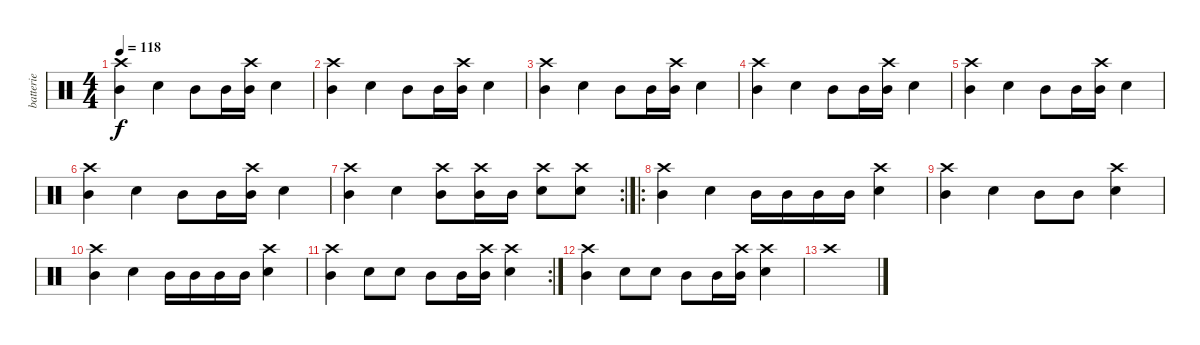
\track ("batterie" "batterie") {instrument percussion}
\staff {score}
\articulation defaults
\ts (4 4)
\tempo 118
\clef neutral
\ks c
("Mid Tom (hit)" "Crash high (hit)").4{dy f} "Electric Snare (hit)".4 "Mid Tom (hit)".8 "Mid Tom (hit)".16 ("Mid Tom (hit)" "Crash high (hit)").16 "Electric Snare (hit)".4 |
("Mid Tom (hit)" "Crash high (hit)").4 "Electric Snare (hit)".4 "Mid Tom (hit)".8 "Mid Tom (hit)".16 ("Mid Tom (hit)" "Crash high (hit)").16 "Electric Snare (hit)".4 |
("Mid Tom (hit)" "Crash high (hit)").4 "Electric Snare (hit)".4 "Mid Tom (hit)".8 "Mid Tom (hit)".16 ("Mid Tom (hit)" "Crash high (hit)").16 "Electric Snare (hit)".4 |
("Mid Tom (hit)" "Crash high (hit)").4 "Electric Snare (hit)".4 "Mid Tom (hit)".8 "Mid Tom (hit)".16 ("Mid Tom (hit)" "Crash high (hit)").16 "Electric Snare (hit)".4 |
("Mid Tom (hit)" "Crash high (hit)").4 "Electric Snare (hit)".4 "Mid Tom (hit)".8 "Mid Tom (hit)".16 ("Mid Tom (hit)" "Crash high (hit)").16 "Electric Snare (hit)".4 |
("Mid Tom (hit)" "Crash high (hit)").4 "Electric Snare (hit)".4 "Mid Tom (hit)".8 "Mid Tom (hit)".16 ("Mid Tom (hit)" "Crash high (hit)").16 "Electric Snare (hit)".4 |
\rc 2
("Mid Tom (hit)" "Crash high (hit)").4 "Electric Snare (hit)".4 ("Mid Tom (hit)" "Crash high (hit)").8 ("Mid Tom (hit)" "Crash high (hit)").16 "Mid Tom (hit)".16 ("Electric Snare (hit)" "Crash high (hit)").8 ("Electric Snare (hit)" "Crash high (hit)").8 |
\ro
("Mid Tom (hit)" "Crash high (hit)").4 "Electric Snare (hit)".4 "Mid Tom (hit)".16 "Mid Tom (hit)".16 "Mid Tom (hit)".16 "Mid Tom (hit)".16 ("Electric Snare (hit)" "Crash high (hit)").4 |
("Mid Tom (hit)" "Crash high (hit)").4 "Electric Snare (hit)".4 "Mid Tom (hit)".8 "Mid Tom (hit)".8 ("Electric Snare (hit)" "Crash high (hit)").4 |
("Mid Tom (hit)" "Crash high (hit)").4 "Electric Snare (hit)".4 "Mid Tom (hit)".16 "Mid Tom (hit)".16 "Mid Tom (hit)".16 "Mid Tom (hit)".16 ("Electric Snare (hit)" "Crash high (hit)").4 |
\rc 2
("Mid Tom (hit)" "Crash high (hit)").4 "Electric Snare (hit)".8 "Electric Snare (hit)".8 "Mid Tom (hit)".8 "Mid Tom (hit)".16 ("Mid Tom (hit)" "Crash high (hit)").16 ("Electric Snare (hit)" "Crash high (hit)").4 |
("Mid Tom (hit)" "Crash high (hit)").4 "Electric Snare (hit)".8 "Electric Snare (hit)".8 "Mid Tom (hit)".8 "Mid Tom (hit)".16 ("Mid Tom (hit)" "Crash high (hit)").16 ("Electric Snare (hit)" "Crash high (hit)").4 |
"Crash high (hit)".1
